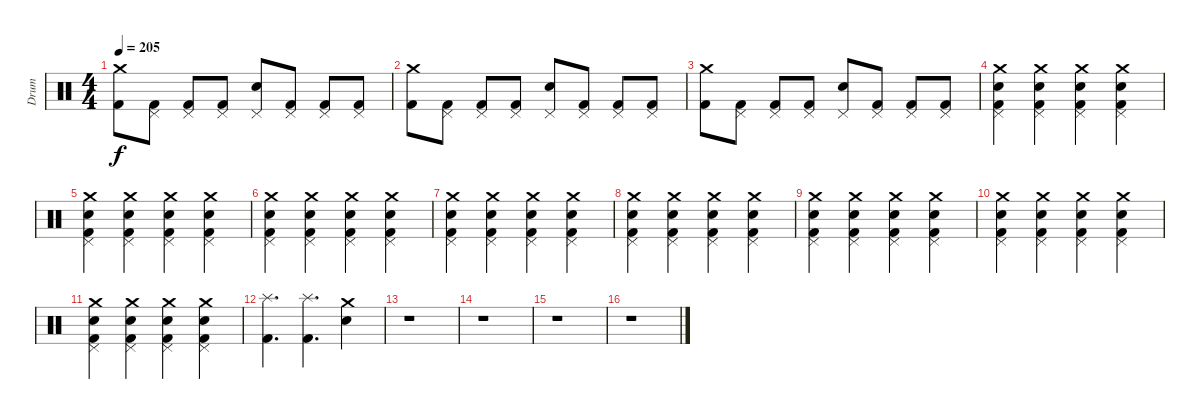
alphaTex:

\track ("Drum" "Drum") {instrument percussion}
\staff {score}
\articulation defaults
\ts (4 4)
\tempo 205
\clef neutral
\ks c
("Crash medium (hit)" "Kick (hit) 2").8{dy f} ("Pedal Hi-Hat (hit)" "Kick (hit) 2").8 ("Pedal Hi-Hat (hit)" "Kick (hit) 2").8 ("Pedal Hi-Hat (hit)" "Kick (hit) 2").8 ("Pedal Hi-Hat (hit)" "Snare (hit) 2").8 ("Pedal Hi-Hat (hit)" "Kick (hit) 2").8 ("Pedal Hi-Hat (hit)" "Kick (hit) 2").8 ("Pedal Hi-Hat (hit)" "Kick (hit) 2").8 |
("Crash medium (hit)" "Kick (hit) 2").8 ("Pedal Hi-Hat (hit)" "Kick (hit) 2").8 ("Pedal Hi-Hat (hit)" "Kick (hit) 2").8 ("Pedal Hi-Hat (hit)" "Kick (hit) 2").8 ("Pedal Hi-Hat (hit)" "Snare (hit) 2").8 ("Pedal Hi-Hat (hit)" "Kick (hit) 2").8 ("Pedal Hi-Hat (hit)" "Kick (hit) 2").8 ("Pedal Hi-Hat (hit)" "Kick (hit) 2").8 |
("Crash medium (hit)" "Kick (hit) 2").8 ("Pedal Hi-Hat (hit)" "Kick (hit) 2").8 ("Pedal Hi-Hat (hit)" "Kick (hit) 2").8 ("Pedal Hi-Hat (hit)" "Kick (hit) 2").8 ("Pedal Hi-Hat (hit)" "Snare (hit) 2").8 ("Pedal Hi-Hat (hit)" "Kick (hit) 2").8 ("Pedal Hi-Hat (hit)" "Kick (hit) 2").8 ("Pedal Hi-Hat (hit)" "Kick (hit) 2").8 |
("Crash medium (hit)" "Pedal Hi-Hat (hit)" "Snare (hit) 2" "Kick (hit) 2").4 ("Crash medium (hit)" "Pedal Hi-Hat (hit)" "Snare (hit) 2" "Kick (hit) 2").4 ("Crash medium (hit)" "Pedal Hi-Hat (hit)" "Snare (hit) 2" "Kick (hit) 2").4 ("Crash medium (hit)" "Pedal Hi-Hat (hit)" "Snare (hit) 2" "Kick (hit) 2").4 |
("Crash medium (hit)" "Pedal Hi-Hat (hit)" "Snare (hit) 2" "Kick (hit) 2").4 ("Crash medium (hit)" "Pedal Hi-Hat (hit)" "Snare (hit) 2" "Kick (hit) 2").4 ("Crash medium (hit)" "Pedal Hi-Hat (hit)" "Snare (hit) 2" "Kick (hit) 2").4 ("Crash medium (hit)" "Pedal Hi-Hat (hit)" "Snare (hit) 2" "Kick (hit) 2").4 |
("Crash medium (hit)" "Pedal Hi-Hat (hit)" "Snare (hit) 2" "Kick (hit) 2").4 ("Crash medium (hit)" "Pedal Hi-Hat (hit)" "Snare (hit) 2" "Kick (hit) 2").4 ("Crash medium (hit)" "Pedal Hi-Hat (hit)" "Snare (hit) 2" "Kick (hit) 2").4 ("Crash medium (hit)" "Pedal Hi-Hat (hit)" "Snare (hit) 2" "Kick (hit) 2").4 |
("Crash medium (hit)" "Pedal Hi-Hat (hit)" "Snare (hit) 2" "Kick (hit) 2").4 ("Crash medium (hit)" "Pedal Hi-Hat (hit)" "Snare (hit) 2" "Kick (hit) 2").4 ("Crash medium (hit)" "Pedal Hi-Hat (hit)" "Snare (hit) 2" "Kick (hit) 2").4 ("Crash medium (hit)" "Pedal Hi-Hat (hit)" "Snare (hit) 2" "Kick (hit) 2").4 |
("Crash medium (hit)" "Pedal Hi-Hat (hit)" "Snare (hit) 2" "Kick (hit) 2").4 ("Crash medium (hit)" "Pedal Hi-Hat (hit)" "Snare (hit) 2" "Kick (hit) 2").4 ("Crash medium (hit)" "Pedal Hi-Hat (hit)" "Snare (hit) 2" "Kick (hit) 2").4 ("Crash medium (hit)" "Pedal Hi-Hat (hit)" "Snare (hit) 2" "Kick (hit) 2").4 |
("Crash medium (hit)" "Pedal Hi-Hat (hit)" "Snare (hit) 2" "Kick (hit) 2").4 ("Crash medium (hit)" "Pedal Hi-Hat (hit)" "Snare (hit) 2" "Kick (hit) 2").4 ("Crash medium (hit)" "Pedal Hi-Hat (hit)" "Snare (hit) 2" "Kick (hit) 2").4 ("Crash medium (hit)" "Pedal Hi-Hat (hit)" "Snare (hit) 2" "Kick (hit) 2").4 |
("Crash medium (hit)" "Pedal Hi-Hat (hit)" "Snare (hit) 2" "Kick (hit) 2").4 ("Crash medium (hit)" "Pedal Hi-Hat (hit)" "Snare (hit) 2" "Kick (hit) 2").4 ("Crash medium (hit)" "Pedal Hi-Hat (hit)" "Snare (hit) 2" "Kick (hit) 2").4 ("Crash medium (hit)" "Pedal Hi-Hat (hit)" "Snare (hit) 2" "Kick (hit) 2").4 |
("Crash medium (hit)" "Pedal Hi-Hat (hit)" "Snare (hit) 2" "Kick (hit) 2").4 ("Crash medium (hit)" "Pedal Hi-Hat (hit)" "Snare (hit) 2" "Kick (hit) 2").4 ("Crash medium (hit)" "Pedal Hi-Hat (hit)" "Snare (hit) 2" "Kick (hit) 2").4 ("Crash medium (hit)" "Pedal Hi-Hat (hit)" "Snare (hit) 2" "Kick (hit) 2").4 |
("Splash (hit)" "Kick (hit) 2").4{d} ("Splash (hit)" "Kick (hit) 2").4{d} ("Crash medium (hit)" "Snare (hit) 2").4 |
r.1 |
r.1 |
r.1 |
r.1
